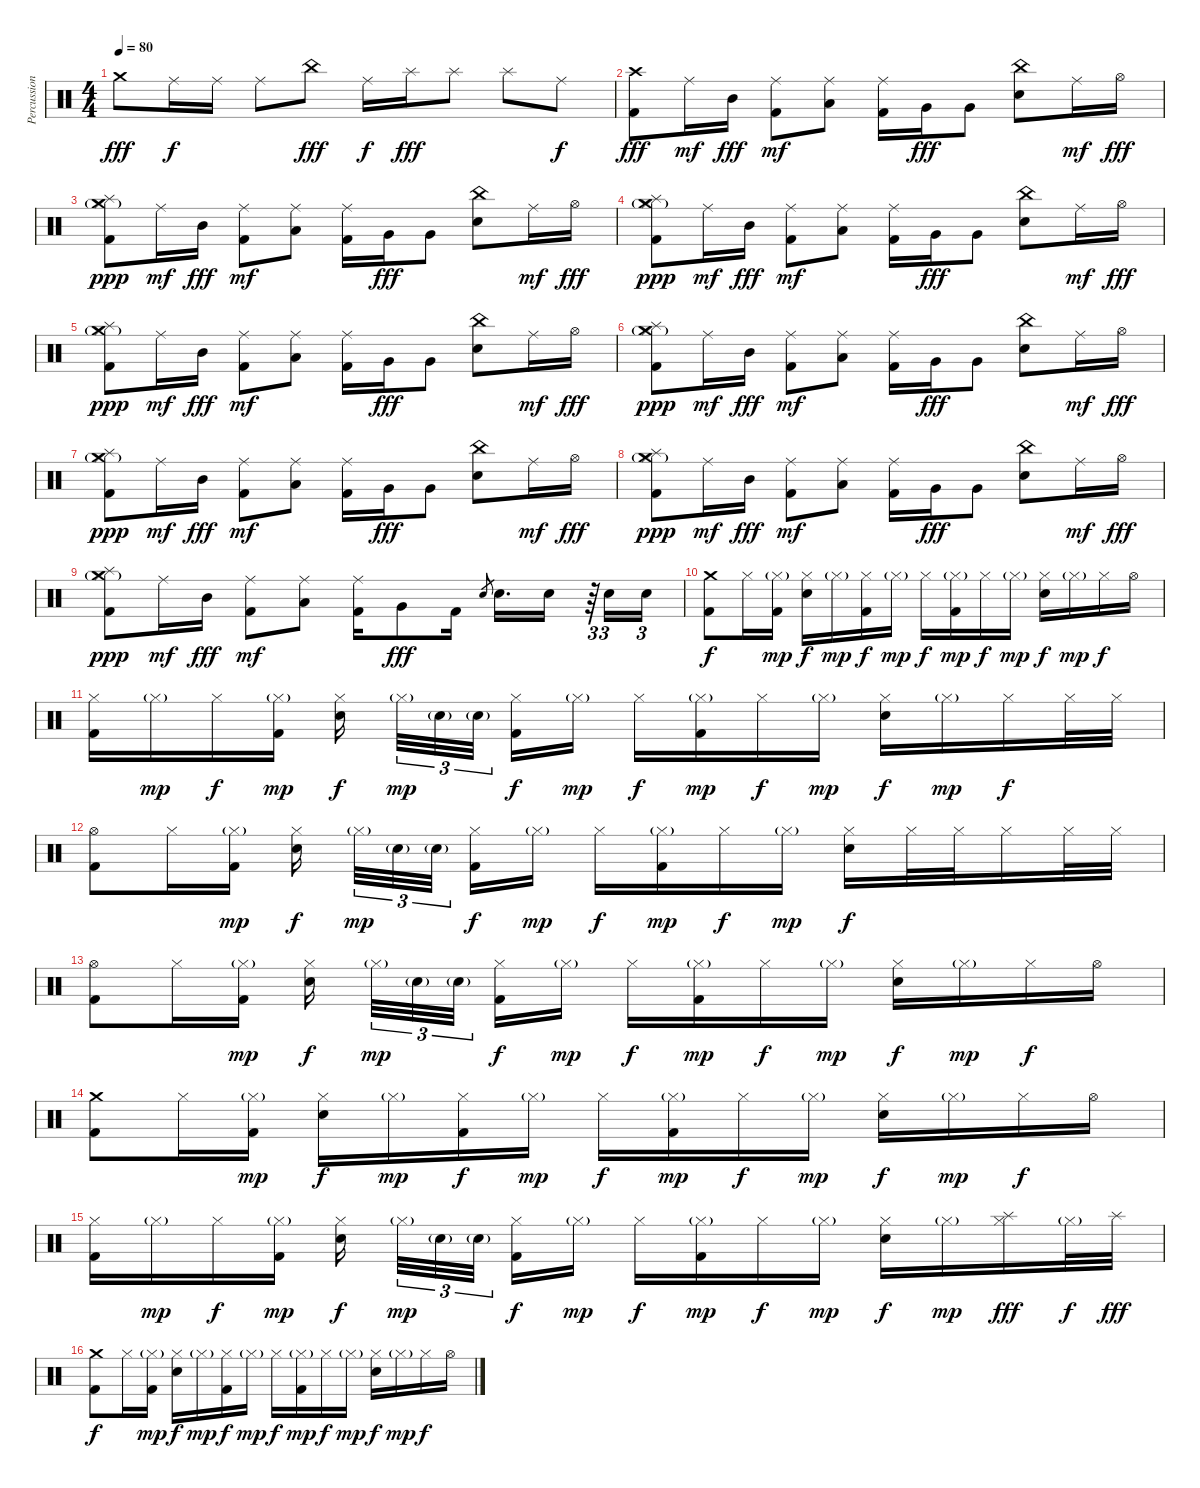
\track ("Percussions" "Percussion") {instrument percussion}
\staff {score}
\articulation defaults
\ts (4 4)
\tempo 80
\clef neutral
\ks c "Crash medium (hit)".8{dy fff} "Ride (middle)".16{dy f} "Ride (middle)".16 "Ride (middle)".8 "China (hit)".8{dy fff} "Ride (middle)".16{dy f} "Splash (hit)".16{dy fff} "Splash (hit)".8 "Splash (hit)".8 "Ride (middle)".8{dy f}
|
("Crash high (hit)" "Kick (hit) 2").8{dy fff} "Ride (middle)".16{dy mf} "Mid Tom (hit)".16{dy fff} ("Kick (hit) 2" "Ride (middle)").8{dy mf} ("Low Tom (hit)" "Ride (middle)").8 ("Kick (hit) 2" "Ride (middle)").16 "Very Low Tom (hit)".16{dy fff} "Very Low Tom (hit)".8 ("China (hit)" "Electric Snare (hit)").8 "Ride (middle)".16{dy mf} "Hi-Hat (open)".16{dy fff} |
("Splash (hit)" "Crash medium (hit)" "Hi-Hat (closed)"{g} "Kick (hit) 2").8{dy ppp} "Ride (middle)".16{dy mf} "Mid Tom (hit)".16{dy fff} ("Kick (hit) 2" "Ride (middle)").8{dy mf} ("Low Tom (hit)" "Ride (middle)").8 ("Kick (hit) 2" "Ride (middle)").16 "Very Low Tom (hit)".16{dy fff} "Very Low Tom (hit)".8 ("China (hit)" "Electric Snare (hit)").8 "Ride (middle)".16{dy mf} "Hi-Hat (open)".16{dy fff} |
("Crash medium (hit)" "Splash (hit)" "Hi-Hat (closed)"{g} "Kick (hit) 2").8{dy ppp} "Ride (middle)".16{dy mf} "Mid Tom (hit)".16{dy fff} ("Kick (hit) 2" "Ride (middle)").8{dy mf} ("Low Tom (hit)" "Ride (middle)").8 ("Kick (hit) 2" "Ride (middle)").16 "Very Low Tom (hit)".16{dy fff} "Very Low Tom (hit)".8 ("China (hit)" "Electric Snare (hit)").8 "Ride (middle)".16{dy mf} "Hi-Hat (open)".16{dy fff} |
("Crash medium (hit)" "Splash (hit)" "Hi-Hat (closed)"{g} "Kick (hit) 2").8{dy ppp} "Ride (middle)".16{dy mf} "Mid Tom (hit)".16{dy fff} ("Kick (hit) 2" "Ride (middle)").8{dy mf} ("Low Tom (hit)" "Ride (middle)").8 ("Kick (hit) 2" "Ride (middle)").16 "Very Low Tom (hit)".16{dy fff} "Very Low Tom (hit)".8 ("China (hit)" "Electric Snare (hit)").8 "Ride (middle)".16{dy mf} "Hi-Hat (open)".16{dy fff} |
("Crash medium (hit)" "Splash (hit)" "Hi-Hat (closed)"{g} "Kick (hit) 2").8{dy ppp} "Ride (middle)".16{dy mf} "Mid Tom (hit)".16{dy fff} ("Kick (hit) 2" "Ride (middle)").8{dy mf} ("Low Tom (hit)" "Ride (middle)").8 ("Kick (hit) 2" "Ride (middle)").16 "Very Low Tom (hit)".16{dy fff} "Very Low Tom (hit)".8 ("China (hit)" "Electric Snare (hit)").8 "Ride (middle)".16{dy mf} "Hi-Hat (open)".16{dy fff} |
("Crash medium (hit)" "Splash (hit)" "Hi-Hat (closed)"{g} "Kick (hit) 2").8{dy ppp} "Ride (middle)".16{dy mf} "Mid Tom (hit)".16{dy fff} ("Kick (hit) 2" "Ride (middle)").8{dy mf} ("Low Tom (hit)" "Ride (middle)").8 ("Kick (hit) 2" "Ride (middle)").16 "Very Low Tom (hit)".16{dy fff} "Very Low Tom (hit)".8 ("China (hit)" "Electric Snare (hit)").8 "Ride (middle)".16{dy mf} "Hi-Hat (open)".16{dy fff} |
("Crash medium (hit)" "Splash (hit)" "Hi-Hat (closed)"{g} "Kick (hit) 2").8{dy ppp} "Ride (middle)".16{dy mf} "Mid Tom (hit)".16{dy fff} ("Kick (hit) 2" "Ride (middle)").8{dy mf} ("Low Tom (hit)" "Ride (middle)").8 ("Kick (hit) 2" "Ride (middle)").16 "Very Low Tom (hit)".16{dy fff} "Very Low Tom (hit)".8 ("China (hit)" "Electric Snare (hit)").8 "Ride (middle)".16{dy mf} "Hi-Hat (open)".16{dy fff} |
("Crash medium (hit)" "Splash (hit)" "Hi-Hat (closed)"{g} "Kick (hit) 2").8{dy ppp} "Ride (middle)".16{dy mf} "Mid Tom (hit)".16{dy fff} ("Kick (hit) 2" "Ride (middle)").8{dy mf} ("Low Tom (hit)" "Ride (middle)").8 ("Kick (hit) 2" "Ride (middle)").16 "Very Low Tom (hit)".8{dy fff} "Kick (hit) 2".16 "Electric Snare (hit)".8{gr} "Electric Snare (hit)".16{d} "Electric Snare (hit)".16 r.64{tu (3 2)} "Electric Snare (hit)".16{tu (3 2)} "Electric Snare (hit)".16{tu (3 2)} |
("Crash medium (hit)" "Kick (hit) 2").8{dy f} "Hi-Hat (closed)".16 ("Kick (hit) 2" "Hi-Hat (closed)"{g}).16{dy mp} ("Electric Snare (hit)" "Hi-Hat (closed)").16{dy f} "Hi-Hat (closed)"{g}.16{dy mp} ("Kick (hit) 2" "Hi-Hat (closed)").16{dy f} "Hi-Hat (closed)"{g}.16{dy mp} "Hi-Hat (closed)".16{dy f} ("Kick (hit) 2" "Hi-Hat (closed)"{g}).16{dy mp} "Hi-Hat (closed)".16{dy f} "Hi-Hat (closed)"{g}.16{dy mp} ("Electric Snare (hit)" "Hi-Hat (closed)").16{dy f} "Hi-Hat (closed)"{g}.16{dy mp} "Hi-Hat (closed)".16{dy f} "Hi-Hat (open)".16 |
("Kick (hit) 2" "Hi-Hat (closed)").16 "Hi-Hat (closed)"{g}.16{dy mp} "Hi-Hat (closed)".16{dy f} ("Kick (hit) 2" "Hi-Hat (closed)"{g}).16{dy mp} ("Electric Snare (hit)" "Hi-Hat (closed)").16{dy f beam splitsecondary} "Hi-Hat (closed)"{g}.32{tu (3 2) dy mp} "Electric Snare (hit)"{g}.32{tu (3 2)} "Electric Snare (hit)"{g}.32{tu (3 2) beam splitsecondary} ("Kick (hit) 2" "Hi-Hat (closed)").16{dy f} "Hi-Hat (closed)"{g}.16{dy mp} "Hi-Hat (closed)".16{dy f} ("Kick (hit) 2" "Hi-Hat (closed)"{g}).16{dy mp} "Hi-Hat (closed)".16{dy f} "Hi-Hat (closed)"{g}.16{dy mp} ("Electric Snare (hit)" "Hi-Hat (closed)").16{dy f} "Hi-Hat (closed)"{g}.16{dy mp} "Hi-Hat (closed)".16{dy f} "Hi-Hat (closed)".32 "Hi-Hat (closed)".32 |
("Kick (hit) 2" "Hi-Hat (open)").8 "Hi-Hat (closed)".16 ("Kick (hit) 2" "Hi-Hat (closed)"{g}).16{dy mp} ("Electric Snare (hit)" "Hi-Hat (closed)").16{dy f beam splitsecondary} "Hi-Hat (closed)"{g}.32{tu (3 2) dy mp} "Electric Snare (hit)"{g}.32{tu (3 2)} "Electric Snare (hit)"{g}.32{tu (3 2) beam splitsecondary} ("Kick (hit) 2" "Hi-Hat (closed)").16{dy f} "Hi-Hat (closed)"{g}.16{dy mp} "Hi-Hat (closed)".16{dy f} ("Kick (hit) 2" "Hi-Hat (closed)"{g}).16{dy mp} "Hi-Hat (closed)".16{dy f} "Hi-Hat (closed)"{g}.16{dy mp} ("Electric Snare (hit)" "Hi-Hat (closed)").16{dy f} "Hi-Hat (closed)".32 "Hi-Hat (closed)".32 "Hi-Hat (closed)".16 "Hi-Hat (closed)".32 "Hi-Hat (closed)".32 |
("Kick (hit) 2" "Hi-Hat (open)").8 "Hi-Hat (closed)".16 ("Kick (hit) 2" "Hi-Hat (closed)"{g}).16{dy mp} ("Electric Snare (hit)" "Hi-Hat (closed)").16{dy f beam splitsecondary} "Hi-Hat (closed)"{g}.32{tu (3 2) dy mp} "Electric Snare (hit)"{g}.32{tu (3 2)} "Electric Snare (hit)"{g}.32{tu (3 2) beam splitsecondary} ("Kick (hit) 2" "Hi-Hat (closed)").16{dy f} "Hi-Hat (closed)"{g}.16{dy mp} "Hi-Hat (closed)".16{dy f} ("Kick (hit) 2" "Hi-Hat (closed)"{g}).16{dy mp} "Hi-Hat (closed)".16{dy f} "Hi-Hat (closed)"{g}.16{dy mp} ("Electric Snare (hit)" "Hi-Hat (closed)").16{dy f} "Hi-Hat (closed)"{g}.16{dy mp} "Hi-Hat (closed)".16{dy f} "Hi-Hat (open)".16 |
("Crash medium (hit)" "Kick (hit) 2").8 "Hi-Hat (closed)".16 ("Kick (hit) 2" "Hi-Hat (closed)"{g}).16{dy mp} ("Electric Snare (hit)" "Hi-Hat (closed)").16{dy f} "Hi-Hat (closed)"{g}.16{dy mp} ("Kick (hit) 2" "Hi-Hat (closed)").16{dy f} "Hi-Hat (closed)"{g}.16{dy mp} "Hi-Hat (closed)".16{dy f} ("Kick (hit) 2" "Hi-Hat (closed)"{g}).16{dy mp} "Hi-Hat (closed)".16{dy f} "Hi-Hat (closed)"{g}.16{dy mp} ("Electric Snare (hit)" "Hi-Hat (closed)").16{dy f} "Hi-Hat (closed)"{g}.16{dy mp} "Hi-Hat (closed)".16{dy f} "Hi-Hat (open)".16 |
("Kick (hit) 2" "Hi-Hat (closed)").16 "Hi-Hat (closed)"{g}.16{dy mp} "Hi-Hat (closed)".16{dy f} ("Kick (hit) 2" "Hi-Hat (closed)"{g}).16{dy mp} ("Electric Snare (hit)" "Hi-Hat (closed)").16{dy f beam splitsecondary} "Hi-Hat (closed)"{g}.32{tu (3 2) dy mp} "Electric Snare (hit)"{g}.32{tu (3 2)} "Electric Snare (hit)"{g}.32{tu (3 2) beam splitsecondary} ("Kick (hit) 2" "Hi-Hat (closed)").16{dy f} "Hi-Hat (closed)"{g}.16{dy mp} "Hi-Hat (closed)".16{dy f} ("Kick (hit) 2" "Hi-Hat (closed)"{g}).16{dy mp} "Hi-Hat (closed)".16{dy f} "Hi-Hat (closed)"{g}.16{dy mp} ("Electric Snare (hit)" "Hi-Hat (closed)").16{dy f} "Hi-Hat (closed)"{g}.16{dy mp} ("Splash (hit)" "Hi-Hat (closed)").16{dy fff} "Hi-Hat (closed)"{g}.32{dy f} "Splash (hit)".32{dy fff} |
("Crash medium (hit)" "Kick (hit) 2").8{dy f} "Hi-Hat (closed)".16 ("Kick (hit) 2" "Hi-Hat (closed)"{g}).16{dy mp} ("Electric Snare (hit)" "Hi-Hat (closed)").16{dy f} "Hi-Hat (closed)"{g}.16{dy mp} ("Kick (hit) 2" "Hi-Hat (closed)").16{dy f} "Hi-Hat (closed)"{g}.16{dy mp} "Hi-Hat (closed)".16{dy f} ("Kick (hit) 2" "Hi-Hat (closed)"{g}).16{dy mp} "Hi-Hat (closed)".16{dy f} "Hi-Hat (closed)"{g}.16{dy mp} ("Electric Snare (hit)" "Hi-Hat (closed)").16{dy f} "Hi-Hat (closed)"{g}.16{dy mp} "Hi-Hat (closed)".16{dy f} "Hi-Hat (open)".16
